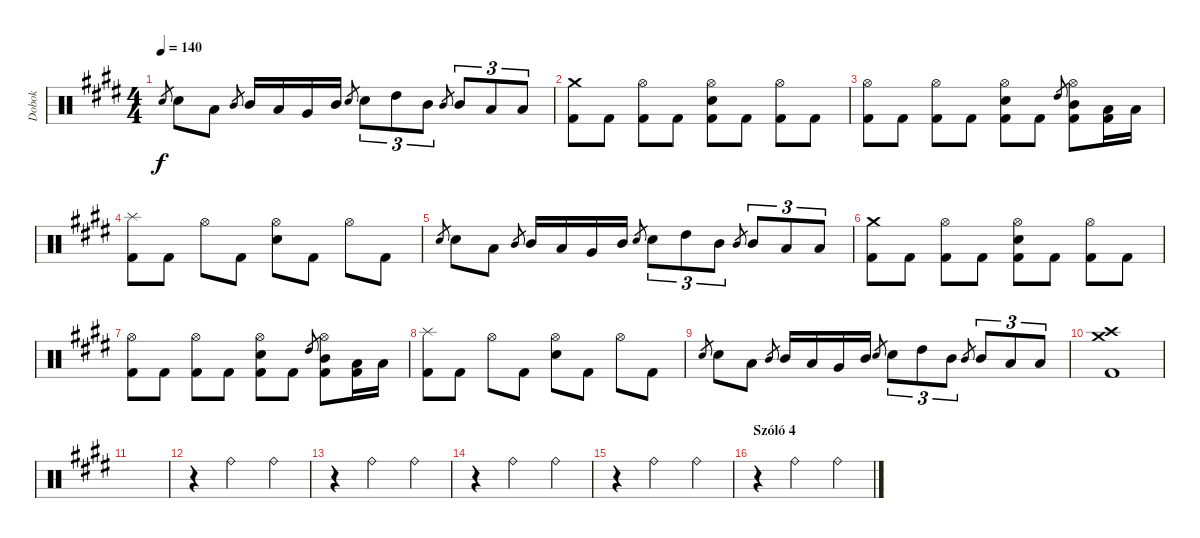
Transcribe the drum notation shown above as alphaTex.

\track ("Dobok" "Dobok") {instrument percussion}
\staff {score}
\articulation defaults
\ts (4 4)
\tempo 140
\clef neutral
\ks c#minor "Snare (hit) 2".8{gr dy f} "Snare (hit) 2".8 "Low Tom (hit)".8 "Mid Tom (hit)".8{gr} "Mid Tom (hit)".16 "Low Tom (hit)".16 "Very Low Tom (hit)".16 "Mid Tom (hit)".16 "Snare (hit) 2".8{gr} "Snare (hit) 2".8{tu (3 2)} "High Tom (hit)".8{tu (3 2)} "Mid Tom (hit)".8{tu (3 2)} "Mid Tom (hit)".8{gr} "Mid Tom (hit)".8{tu (3 2)} "Low Tom (hit)".8{tu (3 2)} "Low Tom (hit)".8{tu (3 2)}
|
("Crash medium (hit)" "Kick (hit) 2").8 "Kick (hit) 2".8 ("Hi-Hat (open)" "Kick (hit) 2").8 "Kick (hit) 2".8 ("Hi-Hat (open)" "Snare (hit) 2" "Kick (hit) 2").8 "Kick (hit) 2".8 ("Hi-Hat (open)" "Kick (hit) 2").8 "Kick (hit) 2".8 |
("Hi-Hat (open)" "Kick (hit) 2").8 "Kick (hit) 2".8 ("Hi-Hat (open)" "Kick (hit) 2").8 "Kick (hit) 2".8 ("Hi-Hat (open)" "Snare (hit) 2" "Kick (hit) 2").8 "Kick (hit) 2".8 "High Tom (hit)".8{gr} ("Hi-Hat (open)" "Mid Tom (hit)" "Kick (hit) 2").8 ("Low Tom (hit)" "Kick (hit) 2").16 "Low Tom (hit)".16 |
("Splash (hit)" "Kick (hit) 2").8 "Kick (hit) 2".8 "Hi-Hat (open)".8 "Kick (hit) 2".8 ("Hi-Hat (open)" "Snare (hit) 2").8 "Kick (hit) 2".8 "Hi-Hat (open)".8 "Kick (hit) 2".8 |
"Snare (hit) 2".8{gr} "Snare (hit) 2".8 "Low Tom (hit)".8 "Mid Tom (hit)".8{gr} "Mid Tom (hit)".16 "Low Tom (hit)".16 "Very Low Tom (hit)".16 "Mid Tom (hit)".16 "Snare (hit) 2".8{gr} "Snare (hit) 2".8{tu (3 2)} "High Tom (hit)".8{tu (3 2)} "Mid Tom (hit)".8{tu (3 2)} "Mid Tom (hit)".8{gr} "Mid Tom (hit)".8{tu (3 2)} "Low Tom (hit)".8{tu (3 2)} "Low Tom (hit)".8{tu (3 2)} |
("Crash medium (hit)" "Kick (hit) 2").8 "Kick (hit) 2".8 ("Hi-Hat (open)" "Kick (hit) 2").8 "Kick (hit) 2".8 ("Hi-Hat (open)" "Snare (hit) 2" "Kick (hit) 2").8 "Kick (hit) 2".8 ("Hi-Hat (open)" "Kick (hit) 2").8 "Kick (hit) 2".8 |
("Hi-Hat (open)" "Kick (hit) 2").8 "Kick (hit) 2".8 ("Hi-Hat (open)" "Kick (hit) 2").8 "Kick (hit) 2".8 ("Hi-Hat (open)" "Snare (hit) 2" "Kick (hit) 2").8 "Kick (hit) 2".8 "High Tom (hit)".8{gr} ("Hi-Hat (open)" "Mid Tom (hit)" "Kick (hit) 2").8 ("Low Tom (hit)" "Kick (hit) 2").16 "Low Tom (hit)".16 |
("Splash (hit)" "Kick (hit) 2").8 "Kick (hit) 2".8 "Hi-Hat (open)".8 "Kick (hit) 2".8 ("Hi-Hat (open)" "Snare (hit) 2").8 "Kick (hit) 2".8 "Hi-Hat (open)".8 "Kick (hit) 2".8 |
"Snare (hit) 2".8{gr} "Snare (hit) 2".8 "Low Tom (hit)".8 "Mid Tom (hit)".8{gr} "Mid Tom (hit)".16 "Low Tom (hit)".16 "Very Low Tom (hit)".16 "Mid Tom (hit)".16 "Snare (hit) 2".8{gr} "Snare (hit) 2".8{tu (3 2)} "High Tom (hit)".8{tu (3 2)} "Mid Tom (hit)".8{tu (3 2)} "Mid Tom (hit)".8{gr} "Mid Tom (hit)".8{tu (3 2)} "Low Tom (hit)".8{tu (3 2)} "Low Tom (hit)".8{tu (3 2)} |
("Crash medium (hit)" "Crash high (hit)" "Kick (hit) 2").1 |
|
r.4 "Ride (bell)".2 "Ride (bell)".4 |
r.4 "Ride (bell)".2 "Ride (bell)".4 |
r.4 "Ride (bell)".2 "Ride (bell)".4 |
r.4 "Ride (bell)".2 "Ride (bell)".4 |
\section ("" "Szóló 4")
r.4 "Ride (bell)".2 "Ride (bell)".4
